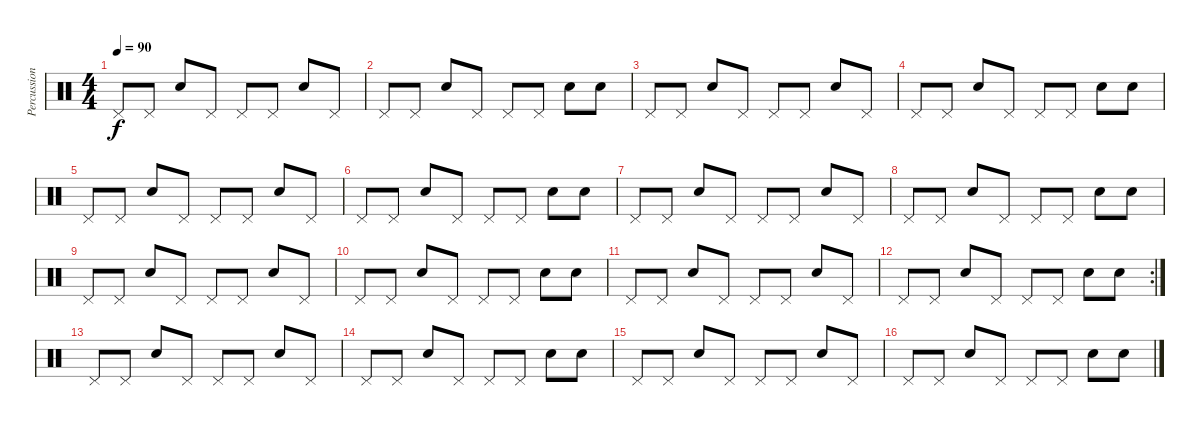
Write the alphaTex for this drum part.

\track ("Percussions" "Percussion") {instrument percussion}
\staff {score}
\articulation defaults
\ts (4 4)
\tempo 90
\clef neutral
\ks c "Pedal Hi-Hat (hit)".8{dy f} "Pedal Hi-Hat (hit)".8 "Electric Snare (hit)".8 "Pedal Hi-Hat (hit)".8 "Pedal Hi-Hat (hit)".8 "Pedal Hi-Hat (hit)".8 "Electric Snare (hit)".8 "Pedal Hi-Hat (hit)".8
|
"Pedal Hi-Hat (hit)".8 "Pedal Hi-Hat (hit)".8 "Electric Snare (hit)".8 "Pedal Hi-Hat (hit)".8 "Pedal Hi-Hat (hit)".8 "Pedal Hi-Hat (hit)".8 "Electric Snare (hit)".8 "Electric Snare (hit)".8 |
"Pedal Hi-Hat (hit)".8 "Pedal Hi-Hat (hit)".8 "Electric Snare (hit)".8 "Pedal Hi-Hat (hit)".8 "Pedal Hi-Hat (hit)".8 "Pedal Hi-Hat (hit)".8 "Electric Snare (hit)".8 "Pedal Hi-Hat (hit)".8 |
"Pedal Hi-Hat (hit)".8 "Pedal Hi-Hat (hit)".8 "Electric Snare (hit)".8 "Pedal Hi-Hat (hit)".8 "Pedal Hi-Hat (hit)".8 "Pedal Hi-Hat (hit)".8 "Electric Snare (hit)".8 "Electric Snare (hit)".8 |
"Pedal Hi-Hat (hit)".8 "Pedal Hi-Hat (hit)".8 "Electric Snare (hit)".8 "Pedal Hi-Hat (hit)".8 "Pedal Hi-Hat (hit)".8 "Pedal Hi-Hat (hit)".8 "Electric Snare (hit)".8 "Pedal Hi-Hat (hit)".8 |
"Pedal Hi-Hat (hit)".8 "Pedal Hi-Hat (hit)".8 "Electric Snare (hit)".8 "Pedal Hi-Hat (hit)".8 "Pedal Hi-Hat (hit)".8 "Pedal Hi-Hat (hit)".8 "Electric Snare (hit)".8 "Electric Snare (hit)".8 |
"Pedal Hi-Hat (hit)".8 "Pedal Hi-Hat (hit)".8 "Electric Snare (hit)".8 "Pedal Hi-Hat (hit)".8 "Pedal Hi-Hat (hit)".8 "Pedal Hi-Hat (hit)".8 "Electric Snare (hit)".8 "Pedal Hi-Hat (hit)".8 |
"Pedal Hi-Hat (hit)".8 "Pedal Hi-Hat (hit)".8 "Electric Snare (hit)".8 "Pedal Hi-Hat (hit)".8 "Pedal Hi-Hat (hit)".8 "Pedal Hi-Hat (hit)".8 "Electric Snare (hit)".8 "Electric Snare (hit)".8 |
"Pedal Hi-Hat (hit)".8 "Pedal Hi-Hat (hit)".8 "Electric Snare (hit)".8 "Pedal Hi-Hat (hit)".8 "Pedal Hi-Hat (hit)".8 "Pedal Hi-Hat (hit)".8 "Electric Snare (hit)".8 "Pedal Hi-Hat (hit)".8 |
"Pedal Hi-Hat (hit)".8 "Pedal Hi-Hat (hit)".8 "Electric Snare (hit)".8 "Pedal Hi-Hat (hit)".8 "Pedal Hi-Hat (hit)".8 "Pedal Hi-Hat (hit)".8 "Electric Snare (hit)".8 "Electric Snare (hit)".8 |
"Pedal Hi-Hat (hit)".8 "Pedal Hi-Hat (hit)".8 "Electric Snare (hit)".8 "Pedal Hi-Hat (hit)".8 "Pedal Hi-Hat (hit)".8 "Pedal Hi-Hat (hit)".8 "Electric Snare (hit)".8 "Pedal Hi-Hat (hit)".8 |
\rc 2 "Pedal Hi-Hat (hit)".8 "Pedal Hi-Hat (hit)".8 "Electric Snare (hit)".8 "Pedal Hi-Hat (hit)".8 "Pedal Hi-Hat (hit)".8 "Pedal Hi-Hat (hit)".8 "Electric Snare (hit)".8 "Electric Snare (hit)".8
|
"Pedal Hi-Hat (hit)".8 "Pedal Hi-Hat (hit)".8 "Electric Snare (hit)".8 "Pedal Hi-Hat (hit)".8 "Pedal Hi-Hat (hit)".8 "Pedal Hi-Hat (hit)".8 "Electric Snare (hit)".8 "Pedal Hi-Hat (hit)".8 |
"Pedal Hi-Hat (hit)".8 "Pedal Hi-Hat (hit)".8 "Electric Snare (hit)".8 "Pedal Hi-Hat (hit)".8 "Pedal Hi-Hat (hit)".8 "Pedal Hi-Hat (hit)".8 "Electric Snare (hit)".8 "Electric Snare (hit)".8 |
"Pedal Hi-Hat (hit)".8 "Pedal Hi-Hat (hit)".8 "Electric Snare (hit)".8 "Pedal Hi-Hat (hit)".8 "Pedal Hi-Hat (hit)".8 "Pedal Hi-Hat (hit)".8 "Electric Snare (hit)".8 "Pedal Hi-Hat (hit)".8 |
"Pedal Hi-Hat (hit)".8 "Pedal Hi-Hat (hit)".8 "Electric Snare (hit)".8 "Pedal Hi-Hat (hit)".8 "Pedal Hi-Hat (hit)".8 "Pedal Hi-Hat (hit)".8 "Electric Snare (hit)".8 "Electric Snare (hit)".8
